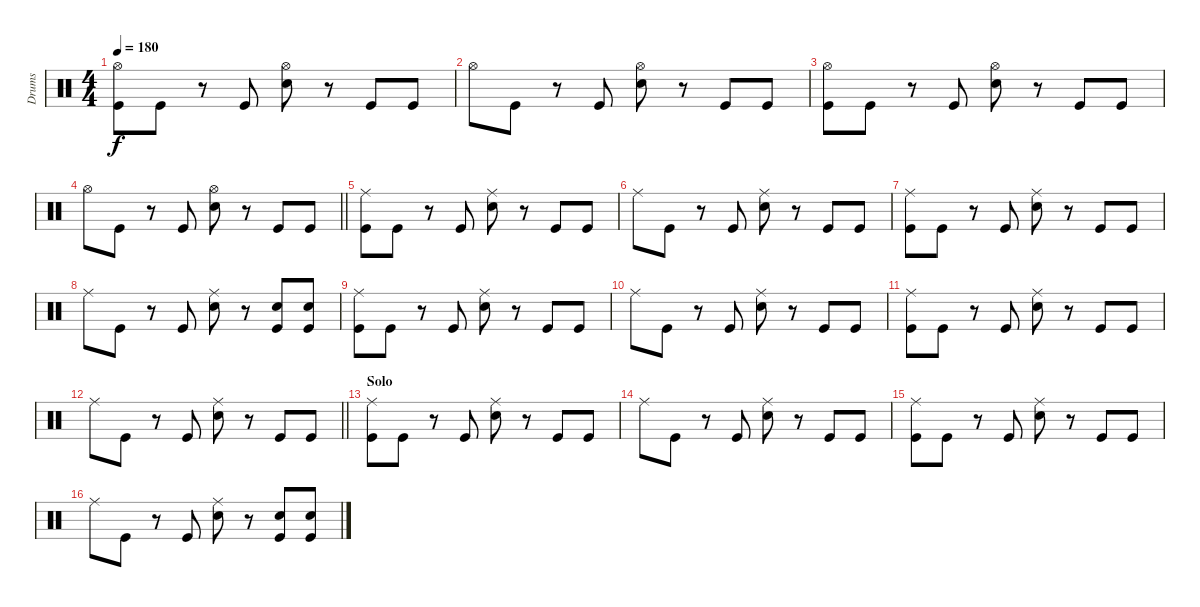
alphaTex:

\track ("Drums" "Drums") {instrument percussion}
\staff {score}
\articulation defaults
\ts (4 4)
\tempo 180
\clef neutral
\ks c
("Hi-Hat (open)" "Kick (hit)").8{dy f} "Kick (hit)".8 r.8 "Kick (hit)".8 ("Hi-Hat (open)" "Electric Snare (hit)").8 r.8 "Kick (hit)".8 "Kick (hit)".8 |
"Hi-Hat (open)".8 "Kick (hit)".8 r.8 "Kick (hit)".8 ("Hi-Hat (open)" "Electric Snare (hit)").8 r.8 "Kick (hit)".8 "Kick (hit)".8 |
("Hi-Hat (open)" "Kick (hit)").8 "Kick (hit)".8 r.8 "Kick (hit)".8 ("Hi-Hat (open)" "Electric Snare (hit)").8 r.8 "Kick (hit)".8 "Kick (hit)".8 |
\barLineRight lightlight "Hi-Hat (open)".8 "Kick (hit)".8
r.8 "Kick (hit)".8 ("Hi-Hat (open)" "Electric Snare (hit)").8 r.8 "Kick (hit)".8 "Kick (hit)".8 |
\section ("" "")
("Ride (middle)" "Kick (hit)").8 "Kick (hit)".8 r.8 "Kick (hit)".8 ("Ride (middle)" "Electric Snare (hit)").8 r.8 "Kick (hit)".8 "Kick (hit)".8 |
"Ride (middle)".8 "Kick (hit)".8 r.8 "Kick (hit)".8 ("Ride (middle)" "Electric Snare (hit)").8 r.8 "Kick (hit)".8 "Kick (hit)".8 |
("Ride (middle)" "Kick (hit)").8 "Kick (hit)".8 r.8 "Kick (hit)".8 ("Ride (middle)" "Electric Snare (hit)").8 r.8 "Kick (hit)".8 "Kick (hit)".8 |
"Ride (middle)".8 "Kick (hit)".8 r.8 "Kick (hit)".8 ("Ride (middle)" "Electric Snare (hit)").8 r.8 ("Electric Snare (hit)" "Kick (hit)").8 ("Electric Snare (hit)" "Kick (hit)").8 |
("Ride (middle)" "Kick (hit)").8 "Kick (hit)".8 r.8 "Kick (hit)".8 ("Ride (middle)" "Electric Snare (hit)").8 r.8 "Kick (hit)".8 "Kick (hit)".8 |
"Ride (middle)".8 "Kick (hit)".8 r.8 "Kick (hit)".8 ("Ride (middle)" "Electric Snare (hit)").8 r.8 "Kick (hit)".8 "Kick (hit)".8 |
("Ride (middle)" "Kick (hit)").8 "Kick (hit)".8 r.8 "Kick (hit)".8 ("Ride (middle)" "Electric Snare (hit)").8 r.8 "Kick (hit)".8 "Kick (hit)".8 |
\barLineRight lightlight "Ride (middle)".8 "Kick (hit)".8
r.8 "Kick (hit)".8 ("Ride (middle)" "Electric Snare (hit)").8 r.8 "Kick (hit)".8 "Kick (hit)".8 |
\section ("" "Solo")
("Ride (middle)" "Kick (hit)").8 "Kick (hit)".8 r.8 "Kick (hit)".8 ("Ride (middle)" "Electric Snare (hit)").8 r.8 "Kick (hit)".8 "Kick (hit)".8 |
"Ride (middle)".8 "Kick (hit)".8 r.8 "Kick (hit)".8 ("Ride (middle)" "Electric Snare (hit)").8 r.8 "Kick (hit)".8 "Kick (hit)".8 |
("Ride (middle)" "Kick (hit)").8 "Kick (hit)".8 r.8 "Kick (hit)".8 ("Ride (middle)" "Electric Snare (hit)").8 r.8 "Kick (hit)".8 "Kick (hit)".8 |
"Ride (middle)".8 "Kick (hit)".8 r.8 "Kick (hit)".8 ("Ride (middle)" "Electric Snare (hit)").8 r.8 ("Electric Snare (hit)" "Kick (hit)").8 ("Electric Snare (hit)" "Kick (hit)").8
